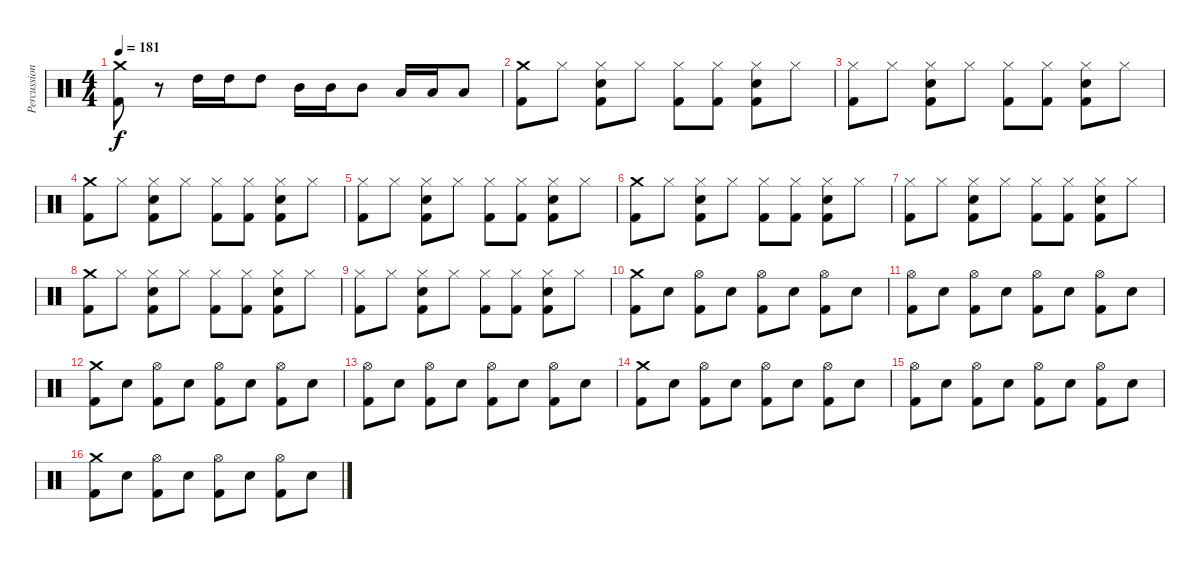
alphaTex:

\track ("Percussion" "Percussion") {instrument percussion}
\staff {score}
\articulation defaults
\ts (4 4)
\tempo 181
\clef neutral
\ks c
("Crash medium (hit)" "Kick (hit) 2").8{dy f} r.8 "High Tom (hit)".16 "High Tom (hit)".16 "High Tom (hit)".8 "Mid Tom (hit)".16 "Mid Tom (hit)".16 "Mid Tom (hit)".8 "Low Tom (hit)".16 "Low Tom (hit)".16 "Low Tom (hit)".8 |
("Crash medium (hit)" "Kick (hit) 2").8 "Hi-Hat (closed)".8 ("Hi-Hat (closed)" "Electric Snare (hit)" "Kick (hit) 2").8 "Hi-Hat (closed)".8 ("Hi-Hat (closed)" "Kick (hit) 2").8 ("Hi-Hat (closed)" "Kick (hit) 2").8 ("Hi-Hat (closed)" "Electric Snare (hit)" "Kick (hit) 2").8 "Hi-Hat (closed)".8 |
("Hi-Hat (closed)" "Kick (hit) 2").8 "Hi-Hat (closed)".8 ("Hi-Hat (closed)" "Electric Snare (hit)" "Kick (hit) 2").8 "Hi-Hat (closed)".8 ("Hi-Hat (closed)" "Kick (hit) 2").8 ("Hi-Hat (closed)" "Kick (hit) 2").8 ("Hi-Hat (closed)" "Electric Snare (hit)" "Kick (hit) 2").8 "Hi-Hat (closed)".8 |
("Crash medium (hit)" "Kick (hit) 2").8 "Hi-Hat (closed)".8 ("Hi-Hat (closed)" "Electric Snare (hit)" "Kick (hit) 2").8 "Hi-Hat (closed)".8 ("Hi-Hat (closed)" "Kick (hit) 2").8 ("Hi-Hat (closed)" "Kick (hit) 2").8 ("Hi-Hat (closed)" "Electric Snare (hit)" "Kick (hit) 2").8 "Hi-Hat (closed)".8 |
("Hi-Hat (closed)" "Kick (hit) 2").8 "Hi-Hat (closed)".8 ("Hi-Hat (closed)" "Electric Snare (hit)" "Kick (hit) 2").8 "Hi-Hat (closed)".8 ("Hi-Hat (closed)" "Kick (hit) 2").8 ("Hi-Hat (closed)" "Kick (hit) 2").8 ("Hi-Hat (closed)" "Electric Snare (hit)" "Kick (hit) 2").8 "Hi-Hat (closed)".8 |
("Crash medium (hit)" "Kick (hit) 2").8 "Hi-Hat (closed)".8 ("Hi-Hat (closed)" "Electric Snare (hit)" "Kick (hit) 2").8 "Hi-Hat (closed)".8 ("Hi-Hat (closed)" "Kick (hit) 2").8 ("Hi-Hat (closed)" "Kick (hit) 2").8 ("Hi-Hat (closed)" "Electric Snare (hit)" "Kick (hit) 2").8 "Hi-Hat (closed)".8 |
("Hi-Hat (closed)" "Kick (hit) 2").8 "Hi-Hat (closed)".8 ("Hi-Hat (closed)" "Electric Snare (hit)" "Kick (hit) 2").8 "Hi-Hat (closed)".8 ("Hi-Hat (closed)" "Kick (hit) 2").8 ("Hi-Hat (closed)" "Kick (hit) 2").8 ("Hi-Hat (closed)" "Electric Snare (hit)" "Kick (hit) 2").8 "Hi-Hat (closed)".8 |
("Crash medium (hit)" "Kick (hit) 2").8 "Hi-Hat (closed)".8 ("Hi-Hat (closed)" "Electric Snare (hit)" "Kick (hit) 2").8 "Hi-Hat (closed)".8 ("Hi-Hat (closed)" "Kick (hit) 2").8 ("Hi-Hat (closed)" "Kick (hit) 2").8 ("Hi-Hat (closed)" "Electric Snare (hit)" "Kick (hit) 2").8 "Hi-Hat (closed)".8 |
("Hi-Hat (closed)" "Kick (hit) 2").8 "Hi-Hat (closed)".8 ("Hi-Hat (closed)" "Electric Snare (hit)" "Kick (hit) 2").8 "Hi-Hat (closed)".8 ("Hi-Hat (closed)" "Kick (hit) 2").8 ("Hi-Hat (closed)" "Kick (hit) 2").8 ("Hi-Hat (closed)" "Electric Snare (hit)" "Kick (hit) 2").8 "Hi-Hat (closed)".8 |
("Crash medium (hit)" "Kick (hit) 2").8 "Electric Snare (hit)".8 ("Hi-Hat (open)" "Kick (hit) 2").8 "Electric Snare (hit)".8 ("Hi-Hat (open)" "Kick (hit) 2").8 "Electric Snare (hit)".8 ("Hi-Hat (open)" "Kick (hit) 2").8 "Electric Snare (hit)".8 |
("Hi-Hat (open)" "Kick (hit) 2").8 "Electric Snare (hit)".8 ("Hi-Hat (open)" "Kick (hit) 2").8 "Electric Snare (hit)".8 ("Hi-Hat (open)" "Kick (hit) 2").8 "Electric Snare (hit)".8 ("Hi-Hat (open)" "Kick (hit) 2").8 "Electric Snare (hit)".8 |
("Crash medium (hit)" "Kick (hit) 2").8 "Electric Snare (hit)".8 ("Hi-Hat (open)" "Kick (hit) 2").8 "Electric Snare (hit)".8 ("Hi-Hat (open)" "Kick (hit) 2").8 "Electric Snare (hit)".8 ("Hi-Hat (open)" "Kick (hit) 2").8 "Electric Snare (hit)".8 |
("Hi-Hat (open)" "Kick (hit) 2").8 "Electric Snare (hit)".8 ("Hi-Hat (open)" "Kick (hit) 2").8 "Electric Snare (hit)".8 ("Hi-Hat (open)" "Kick (hit) 2").8 "Electric Snare (hit)".8 ("Hi-Hat (open)" "Kick (hit) 2").8 "Electric Snare (hit)".8 |
("Crash medium (hit)" "Kick (hit) 2").8 "Electric Snare (hit)".8 ("Hi-Hat (open)" "Kick (hit) 2").8 "Electric Snare (hit)".8 ("Hi-Hat (open)" "Kick (hit) 2").8 "Electric Snare (hit)".8 ("Hi-Hat (open)" "Kick (hit) 2").8 "Electric Snare (hit)".8 |
("Hi-Hat (open)" "Kick (hit) 2").8 "Electric Snare (hit)".8 ("Hi-Hat (open)" "Kick (hit) 2").8 "Electric Snare (hit)".8 ("Hi-Hat (open)" "Kick (hit) 2").8 "Electric Snare (hit)".8 ("Hi-Hat (open)" "Kick (hit) 2").8 "Electric Snare (hit)".8 |
("Crash medium (hit)" "Kick (hit) 2").8 "Electric Snare (hit)".8 ("Hi-Hat (open)" "Kick (hit) 2").8 "Electric Snare (hit)".8 ("Hi-Hat (open)" "Kick (hit) 2").8 "Electric Snare (hit)".8 ("Hi-Hat (open)" "Kick (hit) 2").8 "Electric Snare (hit)".8
